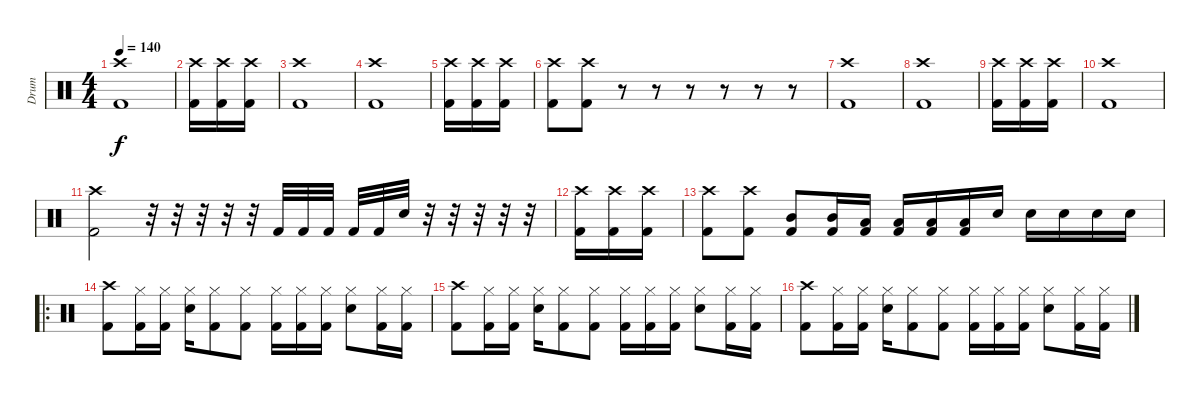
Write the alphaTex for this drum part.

\track ("Drum" "Drum") {instrument percussion}
\staff {score}
\articulation defaults
\ts (4 4)
\tempo 140
\clef neutral
\ks c
("Crash high (hit)" "Kick (hit) 2").1{dy f} |
("Crash high (hit)" "Kick (hit) 2").16 ("Crash high (hit)" "Kick (hit) 2").16 ("Crash high (hit)" "Kick (hit) 2").16 |
("Crash high (hit)" "Kick (hit) 2").1 |
("Crash high (hit)" "Kick (hit) 2").1 |
("Crash high (hit)" "Kick (hit) 2").16 ("Crash high (hit)" "Kick (hit) 2").16 ("Crash high (hit)" "Kick (hit) 2").16 |
("Crash high (hit)" "Kick (hit) 2").8 ("Crash high (hit)" "Kick (hit) 2").8 r.8 r.8 r.8 r.8 r.8 r.8 |
("Crash high (hit)" "Kick (hit) 2").1 |
("Crash high (hit)" "Kick (hit) 2").1 |
("Crash high (hit)" "Kick (hit) 2").16 ("Crash high (hit)" "Kick (hit) 2").16 ("Crash high (hit)" "Kick (hit) 2").16 |
("Crash high (hit)" "Kick (hit) 2").1 |
("Crash high (hit)" "Kick (hit) 2").2 r.32 r.32 r.32 r.32 r.32 "Kick (hit) 2".32 "Kick (hit) 2".32 "Kick (hit) 2".32 "Kick (hit) 2".32 "Kick (hit) 2".32 "Snare (hit) 2".32 r.32 r.32 r.32 r.32 r.32 |
("Crash high (hit)" "Kick (hit) 2").16 ("Crash high (hit)" "Kick (hit) 2").16 ("Crash high (hit)" "Kick (hit) 2").16 |
("Crash high (hit)" "Kick (hit) 2").8 ("Crash high (hit)" "Kick (hit) 2").8 ("Mid Tom (hit)" "Kick (hit) 2").8 ("Mid Tom (hit)" "Kick (hit) 2").16 ("Low Tom (hit)" "Kick (hit) 2").16 ("Low Tom (hit)" "Kick (hit) 2").16 ("Low Floor Tom (hit)" "Kick (hit) 2").16 ("Low Floor Tom (hit)" "Kick (hit) 2").16 "Snare (hit) 2".16 "Snare (hit) 2".16 "Snare (hit) 2".16 "Snare (hit) 2".16 "Snare (hit) 2".16 |
\ro
("Crash high (hit)" "Kick (hit) 2").8 ("Hi-Hat (closed)" "Kick (hit) 2").16 ("Hi-Hat (closed)" "Kick (hit) 2").16 ("Snare (hit) 2" "Hi-Hat (closed)").16 ("Hi-Hat (closed)" "Kick (hit) 2").8 ("Hi-Hat (closed)" "Kick (hit) 2").8 ("Hi-Hat (closed)" "Kick (hit) 2").16 ("Hi-Hat (closed)" "Kick (hit) 2").16 ("Hi-Hat (closed)" "Kick (hit) 2").16 ("Snare (hit) 2" "Hi-Hat (closed)").8 ("Hi-Hat (closed)" "Kick (hit) 2").16 ("Hi-Hat (closed)" "Kick (hit) 2").16 |
("Crash high (hit)" "Kick (hit) 2").8 ("Hi-Hat (closed)" "Kick (hit) 2").16 ("Hi-Hat (closed)" "Kick (hit) 2").16 ("Snare (hit) 2" "Hi-Hat (closed)").16 ("Hi-Hat (closed)" "Kick (hit) 2").8 ("Hi-Hat (closed)" "Kick (hit) 2").8 ("Hi-Hat (closed)" "Kick (hit) 2").16 ("Hi-Hat (closed)" "Kick (hit) 2").16 ("Hi-Hat (closed)" "Kick (hit) 2").16 ("Snare (hit) 2" "Hi-Hat (closed)").8 ("Hi-Hat (closed)" "Kick (hit) 2").16 ("Hi-Hat (closed)" "Kick (hit) 2").16 |
("Crash high (hit)" "Kick (hit) 2").8 ("Hi-Hat (closed)" "Kick (hit) 2").16 ("Hi-Hat (closed)" "Kick (hit) 2").16 ("Snare (hit) 2" "Hi-Hat (closed)").16 ("Hi-Hat (closed)" "Kick (hit) 2").8 ("Hi-Hat (closed)" "Kick (hit) 2").8 ("Hi-Hat (closed)" "Kick (hit) 2").16 ("Hi-Hat (closed)" "Kick (hit) 2").16 ("Hi-Hat (closed)" "Kick (hit) 2").16 ("Snare (hit) 2" "Hi-Hat (closed)").8 ("Hi-Hat (closed)" "Kick (hit) 2").16 ("Hi-Hat (closed)" "Kick (hit) 2").16
